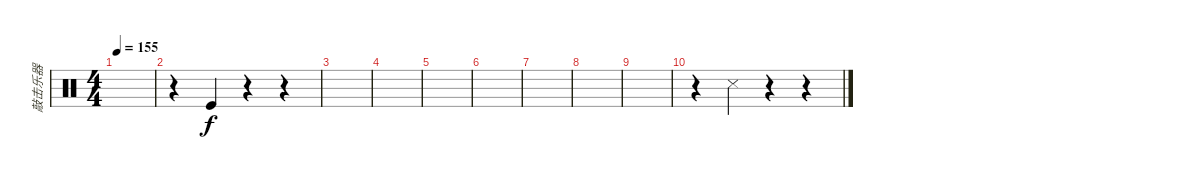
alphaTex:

\track ("敲击乐器" "敲击乐器") {instrument percussion}
\staff {score}
\articulation defaults
\ts (4 4)
\tempo 155
\clef neutral
\ks c
|
r.4 "Kick (hit)".4 r.4 r.4 |
|
|
|
|
|
|
|
r.4 "Snare (side stick) 3".4 r.4 r.4
